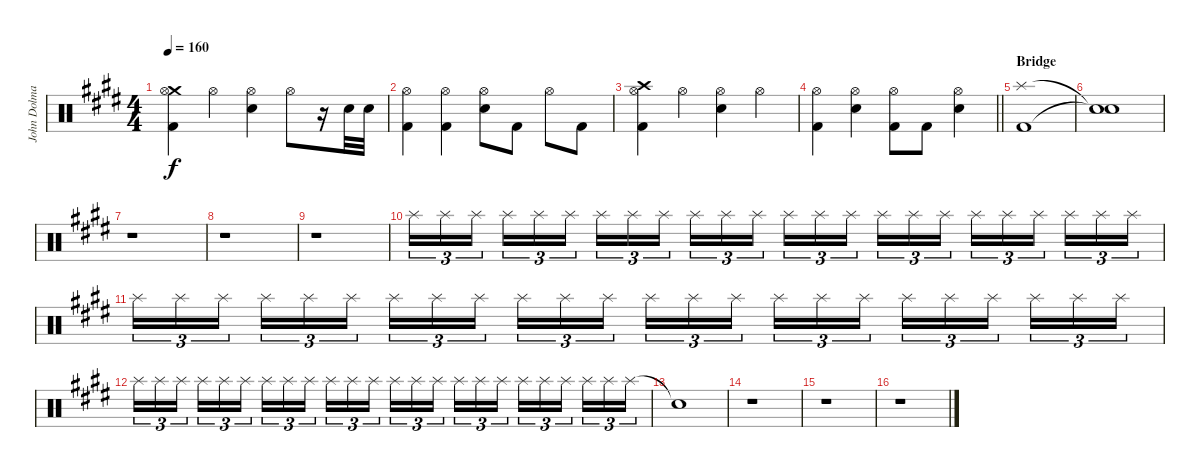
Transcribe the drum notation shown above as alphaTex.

\track ("John Dolmayan [Drums]" "John Dolma") {instrument percussion}
\staff {score}
\articulation defaults
\ts (4 4)
\tempo 160
\clef neutral
\ks c#minor
("Crash medium (hit)" "Hi-Hat (open)" "Kick (hit) 2").4{dy f} "Hi-Hat (open)".4 ("Hi-Hat (open)" "Electric Snare (hit)").4 "Hi-Hat (open)".8 r.16 "Electric Snare (hit)".32 "Electric Snare (hit)".32 |
("Hi-Hat (open)" "Kick (hit) 2").4 ("Hi-Hat (open)" "Kick (hit) 2").4 ("Hi-Hat (open)" "Electric Snare (hit)").8 "Kick (hit) 2".8 "Hi-Hat (open)".8 "Kick (hit) 2".8 |
("Crash high (hit)" "Hi-Hat (open)" "Kick (hit) 2").4 "Hi-Hat (open)".4 ("Hi-Hat (open)" "Electric Snare (hit)").4 "Hi-Hat (open)".4 |
\barLineRight lightlight
("Hi-Hat (open)" "Kick (hit) 2").4 ("Hi-Hat (open)" "Electric Snare (hit)").4 ("Hi-Hat (open)" "Kick (hit) 2").8 "Kick (hit) 2".8 ("Hi-Hat (open)" "Electric Snare (hit)").4 |
\section ("" "Bridge")
("Splash (hit)" "Kick (hit) 2").1 |
("Snare (hit)"{t} "Snare (hit)"{t}).1 |
r.1 |
r.1 |
r.1 |
"Splash (hit)".16{tu (3 2)} "Splash (hit)".16{tu (3 2)} "Splash (hit)".16{tu (3 2) beam splitsecondary} "Splash (hit)".16{tu (3 2)} "Splash (hit)".16{tu (3 2)} "Splash (hit)".16{tu (3 2)} "Splash (hit)".16{tu (3 2)} "Splash (hit)".16{tu (3 2)} "Splash (hit)".16{tu (3 2) beam splitsecondary} "Splash (hit)".16{tu (3 2)} "Splash (hit)".16{tu (3 2)} "Splash (hit)".16{tu (3 2)} "Splash (hit)".16{tu (3 2)} "Splash (hit)".16{tu (3 2)} "Splash (hit)".16{tu (3 2) beam splitsecondary} "Splash (hit)".16{tu (3 2)} "Splash (hit)".16{tu (3 2)} "Splash (hit)".16{tu (3 2)} "Splash (hit)".16{tu (3 2)} "Splash (hit)".16{tu (3 2)} "Splash (hit)".16{tu (3 2) beam splitsecondary} "Splash (hit)".16{tu (3 2)} "Splash (hit)".16{tu (3 2)} "Splash (hit)".16{tu (3 2)} |
"Splash (hit)".16{tu (3 2)} "Splash (hit)".16{tu (3 2)} "Splash (hit)".16{tu (3 2) beam splitsecondary} "Splash (hit)".16{tu (3 2)} "Splash (hit)".16{tu (3 2)} "Splash (hit)".16{tu (3 2)} "Splash (hit)".16{tu (3 2)} "Splash (hit)".16{tu (3 2)} "Splash (hit)".16{tu (3 2) beam splitsecondary} "Splash (hit)".16{tu (3 2)} "Splash (hit)".16{tu (3 2)} "Splash (hit)".16{tu (3 2)} "Splash (hit)".16{tu (3 2)} "Splash (hit)".16{tu (3 2)} "Splash (hit)".16{tu (3 2) beam splitsecondary} "Splash (hit)".16{tu (3 2)} "Splash (hit)".16{tu (3 2)} "Splash (hit)".16{tu (3 2)} "Splash (hit)".16{tu (3 2)} "Splash (hit)".16{tu (3 2)} "Splash (hit)".16{tu (3 2) beam splitsecondary} "Splash (hit)".16{tu (3 2)} "Splash (hit)".16{tu (3 2)} "Splash (hit)".16{tu (3 2)} |
"Splash (hit)".16{tu (3 2)} "Splash (hit)".16{tu (3 2)} "Splash (hit)".16{tu (3 2) beam splitsecondary} "Splash (hit)".16{tu (3 2)} "Splash (hit)".16{tu (3 2)} "Splash (hit)".16{tu (3 2)} "Splash (hit)".16{tu (3 2)} "Splash (hit)".16{tu (3 2)} "Splash (hit)".16{tu (3 2) beam splitsecondary} "Splash (hit)".16{tu (3 2)} "Splash (hit)".16{tu (3 2)} "Splash (hit)".16{tu (3 2)} "Splash (hit)".16{tu (3 2)} "Splash (hit)".16{tu (3 2)} "Splash (hit)".16{tu (3 2) beam splitsecondary} "Splash (hit)".16{tu (3 2)} "Splash (hit)".16{tu (3 2)} "Splash (hit)".16{tu (3 2)} "Splash (hit)".16{tu (3 2)} "Splash (hit)".16{tu (3 2)} "Splash (hit)".16{tu (3 2) beam splitsecondary} "Splash (hit)".16{tu (3 2)} "Splash (hit)".16{tu (3 2)} "Splash (hit)".16{tu (3 2)} |
"Snare (hit)"{t}.1 |
r.1 |
r.1 |
r.1
